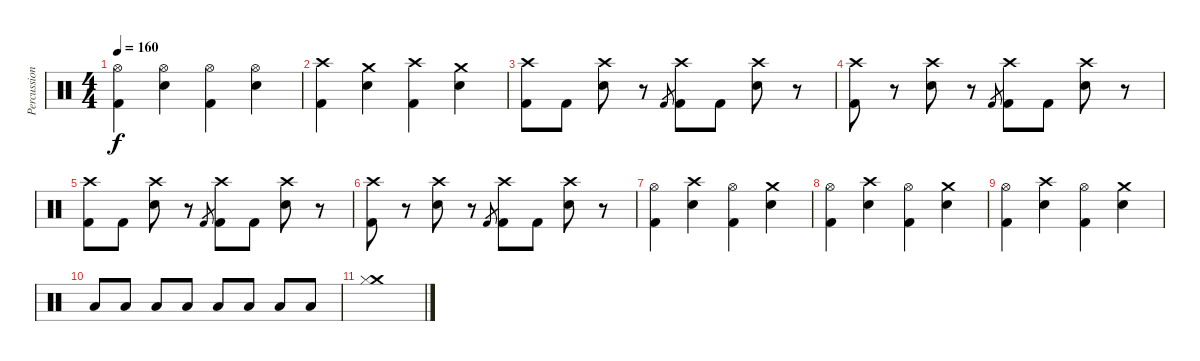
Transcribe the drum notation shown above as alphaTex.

\track ("Percussion" "Percussion") {instrument percussion}
\staff {score}
\articulation defaults
\ts (4 4)
\tempo 160
\clef neutral
\ks c
("Hi-Hat (open)" "Kick (hit) 2").4{dy f} ("Hi-Hat (open)" "Electric Snare (hit)").4 ("Hi-Hat (open)" "Kick (hit) 2").4 ("Hi-Hat (open)" "Electric Snare (hit)").4 |
("Crash high (hit)" "Kick (hit) 2").4 ("Crash medium (hit)" "Electric Snare (hit)").4 ("Crash high (hit)" "Kick (hit) 2").4 ("Crash medium (hit)" "Electric Snare (hit)").4 |
("Crash high (hit)" "Kick (hit) 2").8 "Kick (hit) 2".8 ("Crash high (hit)" "Electric Snare (hit)").8 r.8 "Kick (hit) 2".8{gr} ("Crash high (hit)" "Kick (hit) 2").8 "Kick (hit) 2".8 ("Crash high (hit)" "Electric Snare (hit)").8 r.8 |
("Crash high (hit)" "Kick (hit) 2").8 r.8 ("Crash high (hit)" "Electric Snare (hit)").8 r.8 "Kick (hit) 2".8{gr} ("Crash high (hit)" "Kick (hit) 2").8 "Kick (hit) 2".8 ("Crash high (hit)" "Electric Snare (hit)").8 r.8 |
("Crash high (hit)" "Kick (hit) 2").8 "Kick (hit) 2".8 ("Crash high (hit)" "Electric Snare (hit)").8 r.8 "Kick (hit) 2".8{gr} ("Crash high (hit)" "Kick (hit) 2").8 "Kick (hit) 2".8 ("Crash high (hit)" "Electric Snare (hit)").8 r.8 |
("Crash high (hit)" "Kick (hit) 2").8 r.8 ("Crash high (hit)" "Electric Snare (hit)").8 r.8 "Kick (hit) 2".8{gr} ("Crash high (hit)" "Kick (hit) 2").8 "Kick (hit) 2".8 ("Crash high (hit)" "Electric Snare (hit)").8 r.8 |
("Hi-Hat (open)" "Kick (hit) 2").4 ("Crash high (hit)" "Electric Snare (hit)").4 ("Hi-Hat (open)" "Kick (hit) 2").4 ("Crash medium (hit)" "Electric Snare (hit)").4 |
("Hi-Hat (open)" "Kick (hit) 2").4 ("Crash high (hit)" "Electric Snare (hit)").4 ("Hi-Hat (open)" "Kick (hit) 2").4 ("Crash medium (hit)" "Electric Snare (hit)").4 |
("Hi-Hat (open)" "Kick (hit) 2").4 ("Crash high (hit)" "Electric Snare (hit)").4 ("Hi-Hat (open)" "Kick (hit) 2").4 ("Crash medium (hit)" "Electric Snare (hit)").4 |
"Low Tom (hit)".8 "Low Tom (hit)".8 "Low Tom (hit)".8 "Low Tom (hit)".8 "Low Tom (hit)".8 "Low Tom (hit)".8 "Low Tom (hit)".8 "Low Tom (hit)".8 |
("Crash medium (hit)" "Hi-Hat (closed)").1
